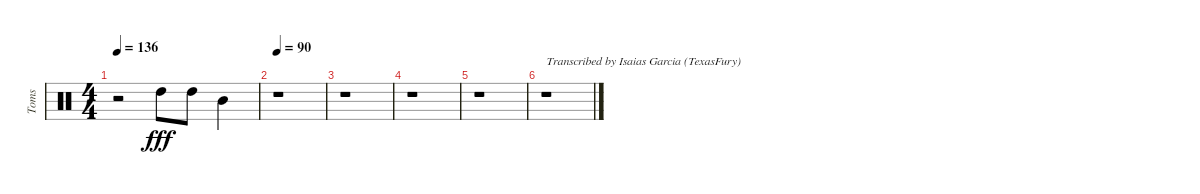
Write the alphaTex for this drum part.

\track ("Toms" "Toms") {instrument percussion}
\staff {score}
\articulation defaults
\ts (4 4)
\tempo 136
\clef neutral
\ks c
r.2{dy f} "High Tom (hit)".8{dy fff balance 8} "High Tom (hit)".8{beam merge} "Mid Tom (hit)".4{balance 5} |
\tempo 90
r.1 |
r.1 |
r.1 |
r.1 |
r.1{txt "Transcribed by Isaias Garcia (TexasFury)"}
